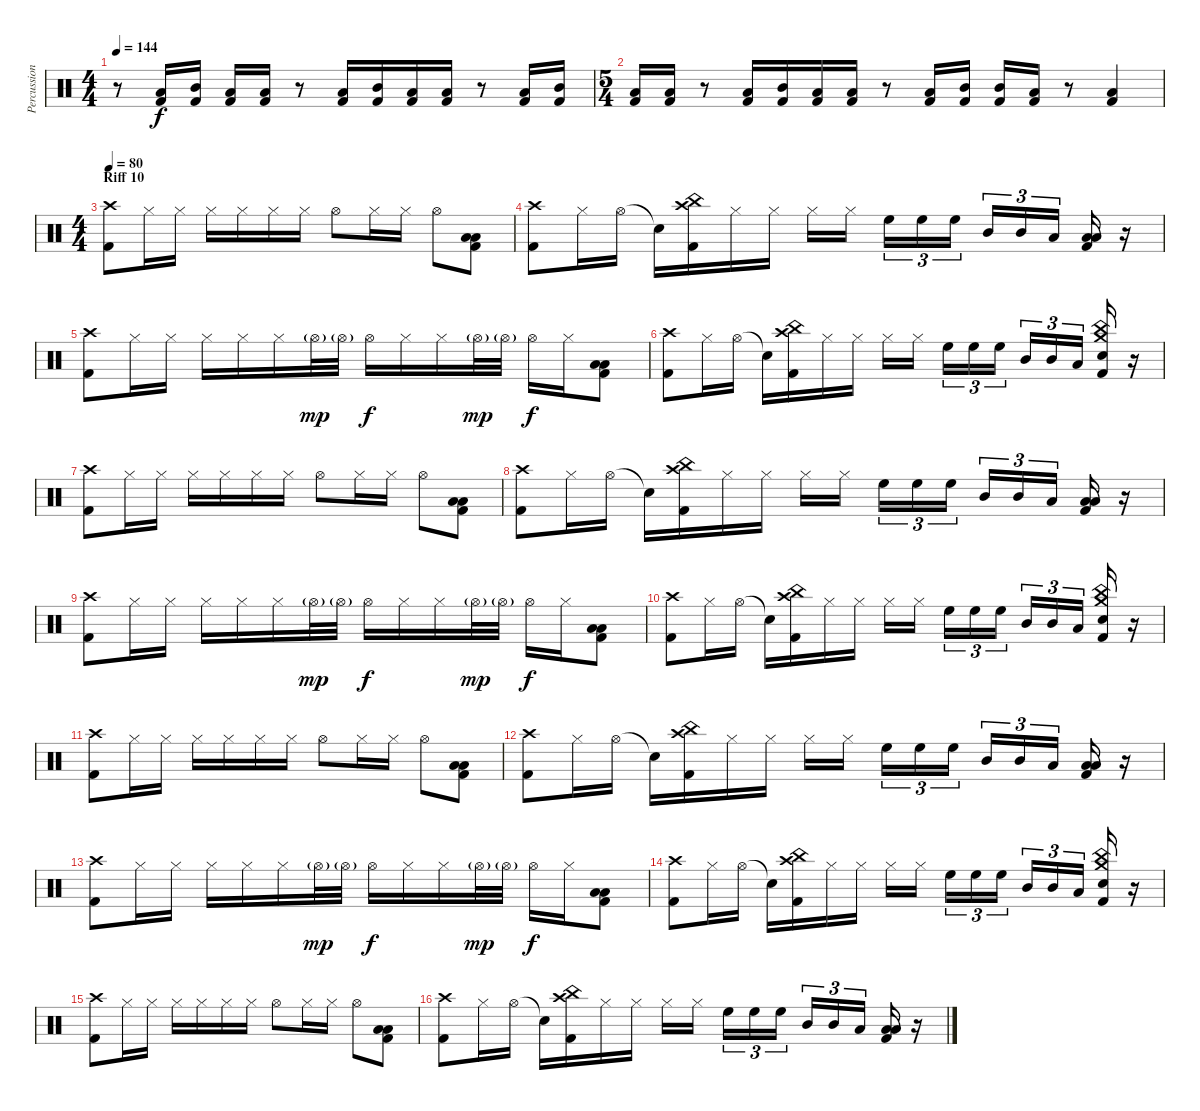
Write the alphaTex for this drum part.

\track ("Percussion" "Percussion") {instrument percussion}
\staff {score}
\articulation defaults
\ts (4 4)
\tempo 144
\clef neutral
\ks c
r.8{dy f} ("Low Tom (hit)" "Kick (hit) 2").16 ("Mid Tom (hit)" "Kick (hit) 2").16 ("Low Tom (hit)" "Kick (hit) 2").16 ("Low Floor Tom (hit)" "Kick (hit) 2").16 r.8 ("Low Tom (hit)" "Kick (hit) 2").16 ("Mid Tom (hit)" "Kick (hit) 2").16 ("Low Tom (hit)" "Kick (hit) 2").16 ("Low Floor Tom (hit)" "Kick (hit) 2").16 r.8 ("Low Tom (hit)" "Kick (hit) 2").16 ("Mid Tom (hit)" "Kick (hit) 2").16 |
\ts (5 4)
("Low Tom (hit)" "Kick (hit) 2").16 ("Low Floor Tom (hit)" "Kick (hit) 2").16 r.8 ("Low Tom (hit)" "Kick (hit) 2").16 ("Mid Tom (hit)" "Kick (hit) 2").16 ("Low Tom (hit)" "Kick (hit) 2").16 ("Low Floor Tom (hit)" "Kick (hit) 2").16 r.8 ("Low Tom (hit)" "Kick (hit) 2").16 ("Mid Tom (hit)" "Kick (hit) 2").16 ("Mid Tom (hit)" "Kick (hit) 2").16 ("Low Floor Tom (hit)" "Kick (hit) 2").16 r.8 ("Low Floor Tom (hit)" "Kick (hit) 2").4 |
\ts (4 4)
\section ("" "Riff 10")
\tempo 80
("Crash high (hit)" "Kick (hit) 2").8 "Hi-Hat (closed)".16 "Hi-Hat (closed)".16 "Hi-Hat (closed)".16 "Hi-Hat (closed)".16 "Hi-Hat (closed)".16 "Hi-Hat (closed)".16 "Hi-Hat (open)".8 "Hi-Hat (closed)".16 "Hi-Hat (closed)".16 "Hi-Hat (open)".8 ("Low Tom (hit)" "Low Floor Tom (hit)" "Kick (hit) 2").8 |
("Crash high (hit)" "Kick (hit) 2").8 "Hi-Hat (closed)".16 "Hi-Hat (open)".16 "Snare (hit)"{t}.16 ("China (hit)" "Crash high (hit)" "Kick (hit) 2").16 "Hi-Hat (closed)".16 "Hi-Hat (closed)".16 "Hi-Hat (closed)".16 "Hi-Hat (closed)".16 "High Floor Tom (hit)".16{tu (3 2)} "High Floor Tom (hit)".16{tu (3 2)} "High Floor Tom (hit)".16{tu (3 2)} "Mid Tom (hit)".16{tu (3 2)} "Mid Tom (hit)".16{tu (3 2)} "Low Tom (hit)".16{tu (3 2)} ("Low Tom (hit)" "Low Floor Tom (hit)" "Kick (hit) 2").16 r.16 |
("Crash high (hit)" "Kick (hit) 2").8 "Hi-Hat (closed)".16 "Hi-Hat (closed)".16 "Hi-Hat (closed)".16 "Hi-Hat (closed)".16 "Hi-Hat (closed)".16 "Hi-Hat (open)"{g}.32{dy mp} "Hi-Hat (open)"{g}.32 "Hi-Hat (open)".16{dy f} "Hi-Hat (closed)".16 "Hi-Hat (closed)".16 "Hi-Hat (open)"{g}.32{dy mp} "Hi-Hat (open)"{g}.32 "Hi-Hat (open)".16{dy f} "Hi-Hat (closed)".16 ("Low Tom (hit)" "Low Floor Tom (hit)" "Kick (hit) 2").8 |
("Crash high (hit)" "Kick (hit) 2").8 "Hi-Hat (closed)".16 "Hi-Hat (open)".16 "Snare (hit)"{t}.16 ("China (hit)" "Crash high (hit)" "Kick (hit) 2").16 "Hi-Hat (closed)".16 "Hi-Hat (closed)".16 "Hi-Hat (closed)".16 "Hi-Hat (closed)".16 "High Floor Tom (hit)".16{tu (3 2)} "High Floor Tom (hit)".16{tu (3 2)} "High Floor Tom (hit)".16{tu (3 2)} "Mid Tom (hit)".16{tu (3 2)} "Mid Tom (hit)".16{tu (3 2)} "Low Tom (hit)".16{tu (3 2)} ("China (hit)" "Crash medium (hit)" "Electric Snare (hit)" "Kick (hit) 2").16 r.16 |
("Crash high (hit)" "Kick (hit) 2").8 "Hi-Hat (closed)".16 "Hi-Hat (closed)".16 "Hi-Hat (closed)".16 "Hi-Hat (closed)".16 "Hi-Hat (closed)".16 "Hi-Hat (closed)".16 "Hi-Hat (open)".8 "Hi-Hat (closed)".16 "Hi-Hat (closed)".16 "Hi-Hat (open)".8 ("Low Tom (hit)" "Low Floor Tom (hit)" "Kick (hit) 2").8 |
("Crash high (hit)" "Kick (hit) 2").8 "Hi-Hat (closed)".16 "Hi-Hat (open)".16 "Snare (hit)"{t}.16 ("China (hit)" "Crash high (hit)" "Kick (hit) 2").16 "Hi-Hat (closed)".16 "Hi-Hat (closed)".16 "Hi-Hat (closed)".16 "Hi-Hat (closed)".16 "High Floor Tom (hit)".16{tu (3 2)} "High Floor Tom (hit)".16{tu (3 2)} "High Floor Tom (hit)".16{tu (3 2)} "Mid Tom (hit)".16{tu (3 2)} "Mid Tom (hit)".16{tu (3 2)} "Low Tom (hit)".16{tu (3 2)} ("Low Tom (hit)" "Low Floor Tom (hit)" "Kick (hit) 2").16 r.16 |
("Crash high (hit)" "Kick (hit) 2").8 "Hi-Hat (closed)".16 "Hi-Hat (closed)".16 "Hi-Hat (closed)".16 "Hi-Hat (closed)".16 "Hi-Hat (closed)".16 "Hi-Hat (open)"{g}.32{dy mp} "Hi-Hat (open)"{g}.32 "Hi-Hat (open)".16{dy f} "Hi-Hat (closed)".16 "Hi-Hat (closed)".16 "Hi-Hat (open)"{g}.32{dy mp} "Hi-Hat (open)"{g}.32 "Hi-Hat (open)".16{dy f} "Hi-Hat (closed)".16 ("Low Tom (hit)" "Low Floor Tom (hit)" "Kick (hit) 2").8 |
("Crash high (hit)" "Kick (hit) 2").8 "Hi-Hat (closed)".16 "Hi-Hat (open)".16 "Snare (hit)"{t}.16 ("China (hit)" "Crash high (hit)" "Kick (hit) 2").16 "Hi-Hat (closed)".16 "Hi-Hat (closed)".16 "Hi-Hat (closed)".16 "Hi-Hat (closed)".16 "High Floor Tom (hit)".16{tu (3 2)} "High Floor Tom (hit)".16{tu (3 2)} "High Floor Tom (hit)".16{tu (3 2)} "Mid Tom (hit)".16{tu (3 2)} "Mid Tom (hit)".16{tu (3 2)} "Low Tom (hit)".16{tu (3 2)} ("China (hit)" "Crash medium (hit)" "Electric Snare (hit)" "Kick (hit) 2").16 r.16 |
("Crash high (hit)" "Kick (hit) 2").8 "Hi-Hat (closed)".16 "Hi-Hat (closed)".16 "Hi-Hat (closed)".16 "Hi-Hat (closed)".16 "Hi-Hat (closed)".16 "Hi-Hat (closed)".16 "Hi-Hat (open)".8 "Hi-Hat (closed)".16 "Hi-Hat (closed)".16 "Hi-Hat (open)".8 ("Low Tom (hit)" "Low Floor Tom (hit)" "Kick (hit) 2").8 |
("Crash high (hit)" "Kick (hit) 2").8 "Hi-Hat (closed)".16 "Hi-Hat (open)".16 "Snare (hit)"{t}.16 ("China (hit)" "Crash high (hit)" "Kick (hit) 2").16 "Hi-Hat (closed)".16 "Hi-Hat (closed)".16 "Hi-Hat (closed)".16 "Hi-Hat (closed)".16 "High Floor Tom (hit)".16{tu (3 2)} "High Floor Tom (hit)".16{tu (3 2)} "High Floor Tom (hit)".16{tu (3 2)} "Mid Tom (hit)".16{tu (3 2)} "Mid Tom (hit)".16{tu (3 2)} "Low Tom (hit)".16{tu (3 2)} ("Low Tom (hit)" "Low Floor Tom (hit)" "Kick (hit) 2").16 r.16 |
("Crash high (hit)" "Kick (hit) 2").8 "Hi-Hat (closed)".16 "Hi-Hat (closed)".16 "Hi-Hat (closed)".16 "Hi-Hat (closed)".16 "Hi-Hat (closed)".16 "Hi-Hat (open)"{g}.32{dy mp} "Hi-Hat (open)"{g}.32 "Hi-Hat (open)".16{dy f} "Hi-Hat (closed)".16 "Hi-Hat (closed)".16 "Hi-Hat (open)"{g}.32{dy mp} "Hi-Hat (open)"{g}.32 "Hi-Hat (open)".16{dy f} "Hi-Hat (closed)".16 ("Low Tom (hit)" "Low Floor Tom (hit)" "Kick (hit) 2").8 |
("Crash high (hit)" "Kick (hit) 2").8 "Hi-Hat (closed)".16 "Hi-Hat (open)".16 "Snare (hit)"{t}.16 ("China (hit)" "Crash high (hit)" "Kick (hit) 2").16 "Hi-Hat (closed)".16 "Hi-Hat (closed)".16 "Hi-Hat (closed)".16 "Hi-Hat (closed)".16 "High Floor Tom (hit)".16{tu (3 2)} "High Floor Tom (hit)".16{tu (3 2)} "High Floor Tom (hit)".16{tu (3 2)} "Mid Tom (hit)".16{tu (3 2)} "Mid Tom (hit)".16{tu (3 2)} "Low Tom (hit)".16{tu (3 2)} ("China (hit)" "Crash medium (hit)" "Electric Snare (hit)" "Kick (hit) 2").16 r.16 |
("Crash high (hit)" "Kick (hit) 2").8 "Hi-Hat (closed)".16 "Hi-Hat (closed)".16 "Hi-Hat (closed)".16 "Hi-Hat (closed)".16 "Hi-Hat (closed)".16 "Hi-Hat (closed)".16 "Hi-Hat (open)".8 "Hi-Hat (closed)".16 "Hi-Hat (closed)".16 "Hi-Hat (open)".8 ("Low Tom (hit)" "Low Floor Tom (hit)" "Kick (hit) 2").8 |
("Crash high (hit)" "Kick (hit) 2").8 "Hi-Hat (closed)".16 "Hi-Hat (open)".16 "Snare (hit)"{t}.16 ("China (hit)" "Crash high (hit)" "Kick (hit) 2").16 "Hi-Hat (closed)".16 "Hi-Hat (closed)".16 "Hi-Hat (closed)".16 "Hi-Hat (closed)".16 "High Floor Tom (hit)".16{tu (3 2)} "High Floor Tom (hit)".16{tu (3 2)} "High Floor Tom (hit)".16{tu (3 2)} "Mid Tom (hit)".16{tu (3 2)} "Mid Tom (hit)".16{tu (3 2)} "Low Tom (hit)".16{tu (3 2)} ("Low Tom (hit)" "Low Floor Tom (hit)" "Kick (hit) 2").16 r.16
